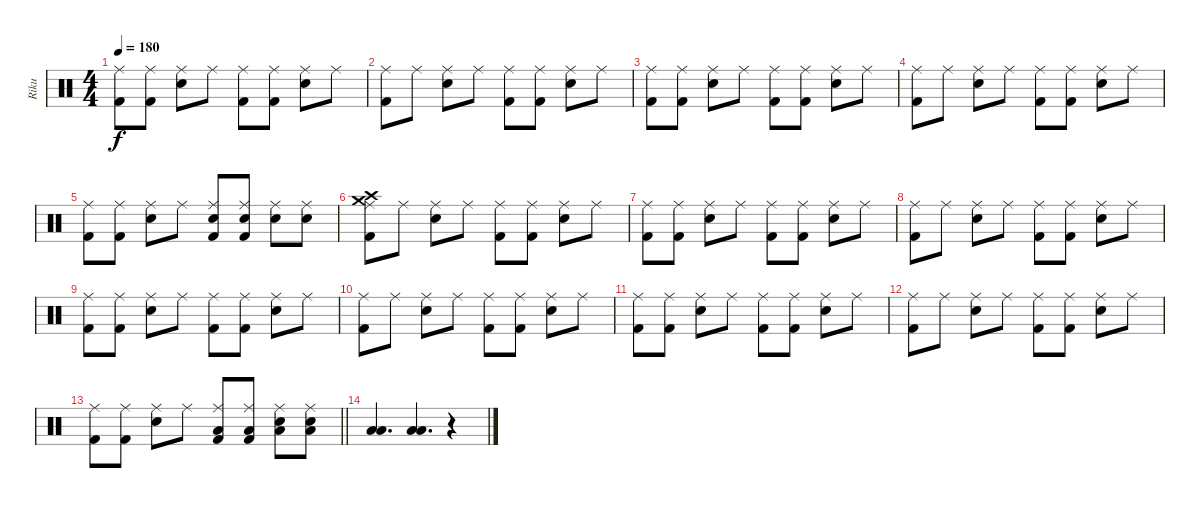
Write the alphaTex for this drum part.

\track ("Riku" "Riku") {instrument percussion}
\staff {score}
\articulation defaults
\ts (4 4)
\tempo 180
\clef neutral
\ks c
("Kick (hit) 2" "Ride (middle)").8{dy f} ("Kick (hit) 2" "Ride (middle)").8 ("Snare (hit) 2" "Ride (middle)").8 "Ride (middle)".8 ("Kick (hit) 2" "Ride (middle)").8 ("Kick (hit) 2" "Ride (middle)").8 ("Snare (hit) 2" "Ride (middle)").8 "Ride (middle)".8 |
("Kick (hit) 2" "Ride (middle)").8 "Ride (middle)".8 ("Snare (hit) 2" "Ride (middle)").8 "Ride (middle)".8 ("Kick (hit) 2" "Ride (middle)").8 ("Kick (hit) 2" "Ride (middle)").8 ("Snare (hit) 2" "Ride (middle)").8 "Ride (middle)".8 |
("Kick (hit) 2" "Ride (middle)").8 ("Kick (hit) 2" "Ride (middle)").8 ("Snare (hit) 2" "Ride (middle)").8 "Ride (middle)".8 ("Kick (hit) 2" "Ride (middle)").8 ("Kick (hit) 2" "Ride (middle)").8 ("Snare (hit) 2" "Ride (middle)").8 "Ride (middle)".8 |
("Kick (hit) 2" "Ride (middle)").8 "Ride (middle)".8 ("Snare (hit) 2" "Ride (middle)").8 "Ride (middle)".8 ("Kick (hit) 2" "Ride (middle)").8 ("Kick (hit) 2" "Ride (middle)").8 ("Snare (hit) 2" "Ride (middle)").8 "Ride (middle)".8 |
("Kick (hit) 2" "Ride (middle)").8 ("Kick (hit) 2" "Ride (middle)").8 ("Snare (hit) 2" "Ride (middle)").8 "Ride (middle)".8 ("Snare (hit) 2" "Kick (hit) 2" "Ride (middle)").8 ("Snare (hit) 2" "Kick (hit) 2" "Ride (middle)").8 ("Snare (hit) 2" "Ride (middle)").8 ("Snare (hit) 2" "Ride (middle)").8 |
("Kick (hit) 2" "Ride (middle)" "Crash medium (hit)" "Crash high (hit)").8 "Ride (middle)".8 ("Snare (hit) 2" "Ride (middle)").8 "Ride (middle)".8 ("Kick (hit) 2" "Ride (middle)").8 ("Kick (hit) 2" "Ride (middle)").8 ("Snare (hit) 2" "Ride (middle)").8 "Ride (middle)".8 |
("Kick (hit) 2" "Ride (middle)").8 ("Kick (hit) 2" "Ride (middle)").8 ("Snare (hit) 2" "Ride (middle)").8 "Ride (middle)".8 ("Kick (hit) 2" "Ride (middle)").8 ("Kick (hit) 2" "Ride (middle)").8 ("Snare (hit) 2" "Ride (middle)").8 "Ride (middle)".8 |
("Kick (hit) 2" "Ride (middle)").8 "Ride (middle)".8 ("Snare (hit) 2" "Ride (middle)").8 "Ride (middle)".8 ("Kick (hit) 2" "Ride (middle)").8 ("Kick (hit) 2" "Ride (middle)").8 ("Snare (hit) 2" "Ride (middle)").8 "Ride (middle)".8 |
("Kick (hit) 2" "Ride (middle)").8 ("Kick (hit) 2" "Ride (middle)").8 ("Snare (hit) 2" "Ride (middle)").8 "Ride (middle)".8 ("Kick (hit) 2" "Ride (middle)").8 ("Kick (hit) 2" "Ride (middle)").8 ("Snare (hit) 2" "Ride (middle)").8 "Ride (middle)".8 |
("Kick (hit) 2" "Ride (middle)").8 "Ride (middle)".8 ("Snare (hit) 2" "Ride (middle)").8 "Ride (middle)".8 ("Kick (hit) 2" "Ride (middle)").8 ("Kick (hit) 2" "Ride (middle)").8 ("Snare (hit) 2" "Ride (middle)").8 "Ride (middle)".8 |
("Kick (hit) 2" "Ride (middle)").8 ("Kick (hit) 2" "Ride (middle)").8 ("Snare (hit) 2" "Ride (middle)").8 "Ride (middle)".8 ("Kick (hit) 2" "Ride (middle)").8 ("Kick (hit) 2" "Ride (middle)").8 ("Snare (hit) 2" "Ride (middle)").8 "Ride (middle)".8 |
("Kick (hit) 2" "Ride (middle)").8 "Ride (middle)".8 ("Snare (hit) 2" "Ride (middle)").8 "Ride (middle)".8 ("Kick (hit) 2" "Ride (middle)").8 ("Kick (hit) 2" "Ride (middle)").8 ("Snare (hit) 2" "Ride (middle)").8 "Ride (middle)".8 |
\barLineRight lightlight
("Kick (hit) 2" "Ride (middle)").8 ("Kick (hit) 2" "Ride (middle)").8 ("Snare (hit) 2" "Ride (middle)").8 "Ride (middle)".8 ("Low Floor Tom (hit)" "Kick (hit) 2" "Ride (middle)").8 ("Low Floor Tom (hit)" "Kick (hit) 2" "Ride (middle)").8 ("Low Floor Tom (hit)" "Snare (hit) 2" "Ride (middle)").8 ("Low Floor Tom (hit)" "Ride (middle)" "Snare (hit) 2").8 |
("Low Floor Tom (hit)" "Low Tom (hit)").4{d} ("Low Floor Tom (hit)" "Low Tom (hit)").4{d} r.4
